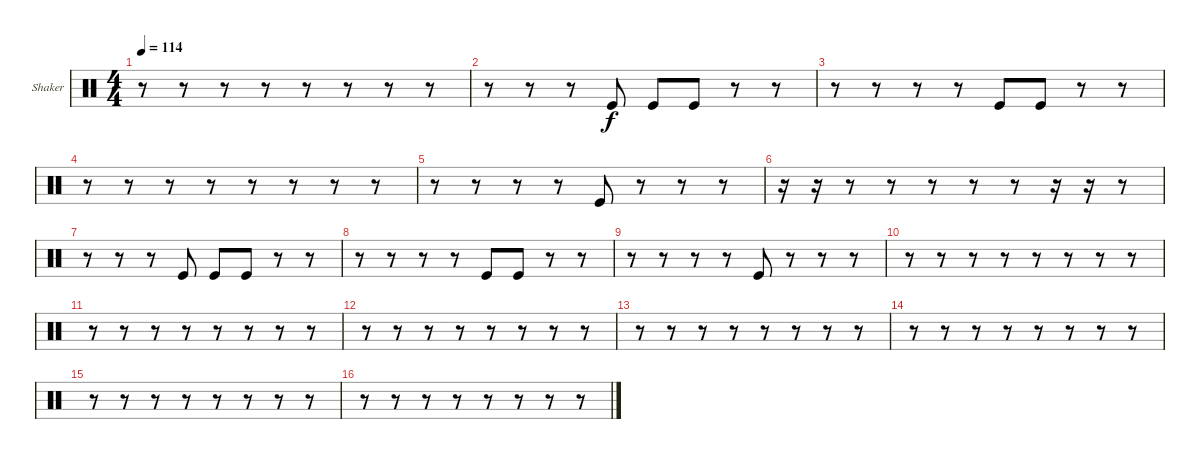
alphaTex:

\bracketExtendMode groupsimilarinstruments
\firstSystemTrackNameOrientation horizontal
\otherSystemsTrackNameOrientation horizontal
\track ("Shaker" "Shaker") {instrument percussion}
\staff {score}
\articulation defaults
\ts (4 4)
\tempo 114
\clef neutral
\ks c
r.8{dy f} r.8 r.8 r.8 r.8 r.8 r.8 r.8 |
r.8 r.8 r.8 "Kick (hit)".8 "Kick (hit)".8 "Kick (hit)".8 r.8 r.8 |
r.8 r.8 r.8 r.8 "Kick (hit)".8 "Kick (hit)".8 r.8 r.8 |
r.8 r.8 r.8 r.8 r.8 r.8 r.8 r.8 |
r.8 r.8 r.8 r.8 "Kick (hit)".8 r.8 r.8 r.8 |
r.16 r.16 r.8 r.8 r.8 r.8 r.8 r.16 r.16 r.8 |
r.8 r.8 r.8 "Kick (hit)".8 "Kick (hit)".8 "Kick (hit)".8 r.8 r.8 |
r.8 r.8 r.8 r.8 "Kick (hit)".8 "Kick (hit)".8 r.8 r.8 |
r.8 r.8 r.8 r.8 "Kick (hit)".8 r.8 r.8 r.8 |
r.8 r.8 r.8 r.8 r.8 r.8 r.8 r.8 |
r.8 r.8 r.8 r.8 r.8 r.8 r.8 r.8 |
r.8 r.8 r.8 r.8 r.8 r.8 r.8 r.8 |
r.8 r.8 r.8 r.8 r.8 r.8 r.8 r.8 |
r.8 r.8 r.8 r.8 r.8 r.8 r.8 r.8 |
r.8 r.8 r.8 r.8 r.8 r.8 r.8 r.8 |
r.8 r.8 r.8 r.8 r.8 r.8 r.8 r.8
